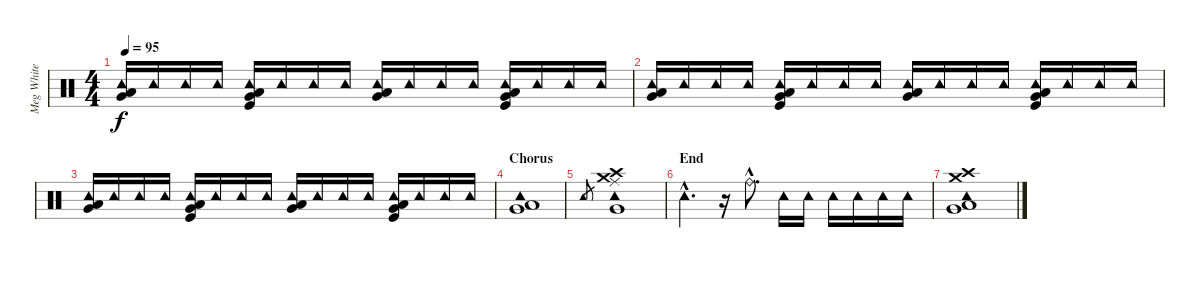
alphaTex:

\track ("Meg White" "Meg White") {instrument percussion}
\staff {score}
\articulation defaults
\ts (4 4)
\tempo 95
\clef neutral
\ks c
("Very Low Tom (hit)" "Low Floor Tom (hit)" "Tambourine (hit)").16{dy f} "Tambourine (hit)".16 "Tambourine (hit)".16 "Tambourine (hit)".16 ("Very Low Tom (hit)" "Low Floor Tom (hit)" "Tambourine (hit)" "Kick (hit)").16 "Tambourine (hit)".16 "Tambourine (hit)".16 "Tambourine (hit)".16 ("Very Low Tom (hit)" "Low Floor Tom (hit)" "Tambourine (hit)").16 "Tambourine (hit)".16 "Tambourine (hit)".16 "Tambourine (hit)".16 ("Very Low Tom (hit)" "Low Floor Tom (hit)" "Tambourine (hit)" "Kick (hit)").16 "Tambourine (hit)".16 "Tambourine (hit)".16 "Tambourine (hit)".16 |
("Very Low Tom (hit)" "Low Floor Tom (hit)" "Tambourine (hit)").16 "Tambourine (hit)".16 "Tambourine (hit)".16 "Tambourine (hit)".16 ("Very Low Tom (hit)" "Low Floor Tom (hit)" "Tambourine (hit)" "Kick (hit)").16 "Tambourine (hit)".16 "Tambourine (hit)".16 "Tambourine (hit)".16 ("Very Low Tom (hit)" "Low Floor Tom (hit)" "Tambourine (hit)").16 "Tambourine (hit)".16 "Tambourine (hit)".16 "Tambourine (hit)".16 ("Very Low Tom (hit)" "Low Floor Tom (hit)" "Tambourine (hit)" "Kick (hit)").16 "Tambourine (hit)".16 "Tambourine (hit)".16 "Tambourine (hit)".16 |
("Very Low Tom (hit)" "Low Floor Tom (hit)" "Tambourine (hit)").16 "Tambourine (hit)".16 "Tambourine (hit)".16 "Tambourine (hit)".16 ("Very Low Tom (hit)" "Low Floor Tom (hit)" "Tambourine (hit)" "Kick (hit)").16 "Tambourine (hit)".16 "Tambourine (hit)".16 "Tambourine (hit)".16 ("Very Low Tom (hit)" "Low Floor Tom (hit)" "Tambourine (hit)").16 "Tambourine (hit)".16 "Tambourine (hit)".16 "Tambourine (hit)".16 ("Very Low Tom (hit)" "Low Floor Tom (hit)" "Tambourine (hit)" "Kick (hit)").16 "Tambourine (hit)".16 "Tambourine (hit)".16 "Tambourine (hit)".16 |
\section ("" "Chorus")
("Very Low Tom (hit)" "Low Floor Tom (hit)" "Tambourine (hit)").1 |
"Tambourine (hit)".8{gr} ("Very Low Tom (hit)" "Ride (middle)" "Tambourine (hit)" "Crash high (hit)" "Crash medium (hit)").1 |
\section ("" "End")
"Tambourine (hit)"{hac}.4{d} r.16 "Ride (bell)"{hac}.8{d} "Tambourine (hit)".16 "Tambourine (hit)".16 "Tambourine (hit)".16 "Tambourine (hit)".16 "Tambourine (hit)".16 "Tambourine (hit)".16 |
("Very Low Tom (hit)" "Low Floor Tom (hit)" "Tambourine (hit)" "Crash high (hit)" "Crash medium (hit)").1
